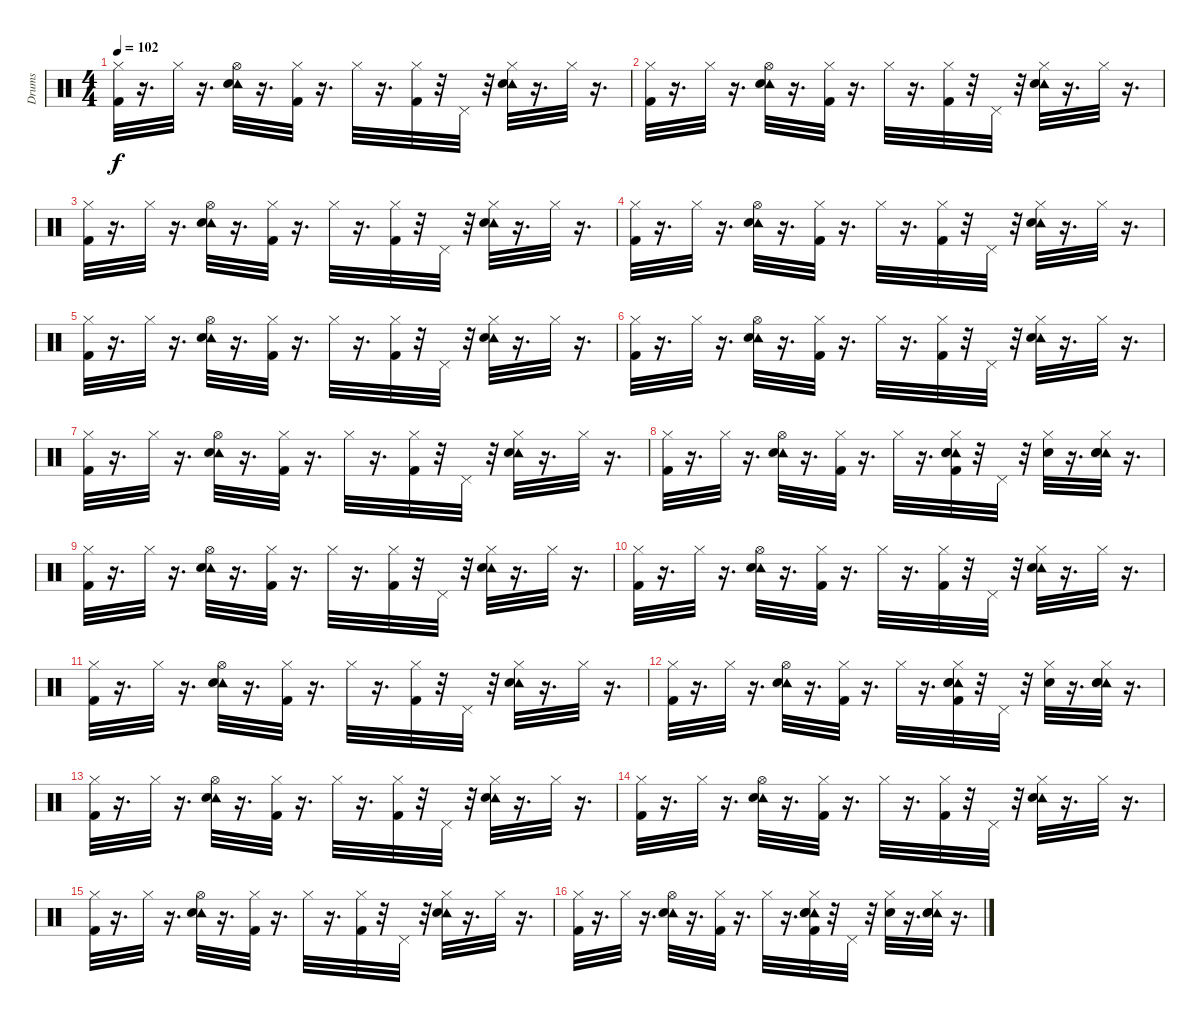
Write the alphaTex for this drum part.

\track ("Drums" "Drums") {instrument percussion}
\staff {score}
\articulation defaults
\ts (4 4)
\tempo 102
\clef neutral
\ks c
("Hi-Hat (closed)" "Kick (hit) 2").32{dy f} r.16{d} "Hi-Hat (closed)".32 r.16{d} ("Tambourine (hit)" "Hi-Hat (open)" "Electric Snare (hit)").32 r.16{d} ("Hi-Hat (closed)" "Kick (hit) 2").32 r.16{d} "Hi-Hat (closed)".32 r.16{d} ("Hi-Hat (closed)" "Kick (hit) 2").32 r.32 "Pedal Hi-Hat (hit)".32 r.32 ("Tambourine (hit)" "Hi-Hat (closed)" "Electric Snare (hit)").32 r.16{d} "Hi-Hat (closed)".32 r.16{d} |
("Hi-Hat (closed)" "Kick (hit) 2").32 r.16{d} "Hi-Hat (closed)".32 r.16{d} ("Tambourine (hit)" "Hi-Hat (open)" "Electric Snare (hit)").32 r.16{d} ("Hi-Hat (closed)" "Kick (hit) 2").32 r.16{d} "Hi-Hat (closed)".32 r.16{d} ("Hi-Hat (closed)" "Kick (hit) 2").32 r.32 "Pedal Hi-Hat (hit)".32 r.32 ("Tambourine (hit)" "Hi-Hat (closed)" "Electric Snare (hit)").32 r.16{d} "Hi-Hat (closed)".32 r.16{d} |
("Hi-Hat (closed)" "Kick (hit) 2").32 r.16{d} "Hi-Hat (closed)".32 r.16{d} ("Tambourine (hit)" "Hi-Hat (open)" "Electric Snare (hit)").32 r.16{d} ("Hi-Hat (closed)" "Kick (hit) 2").32 r.16{d} "Hi-Hat (closed)".32 r.16{d} ("Hi-Hat (closed)" "Kick (hit) 2").32 r.32 "Pedal Hi-Hat (hit)".32 r.32 ("Tambourine (hit)" "Hi-Hat (closed)" "Electric Snare (hit)").32 r.16{d} "Hi-Hat (closed)".32 r.16{d} |
("Hi-Hat (closed)" "Kick (hit) 2").32 r.16{d} "Hi-Hat (closed)".32 r.16{d} ("Tambourine (hit)" "Hi-Hat (open)" "Electric Snare (hit)").32 r.16{d} ("Hi-Hat (closed)" "Kick (hit) 2").32 r.16{d} "Hi-Hat (closed)".32 r.16{d} ("Hi-Hat (closed)" "Kick (hit) 2").32 r.32 "Pedal Hi-Hat (hit)".32 r.32 ("Tambourine (hit)" "Hi-Hat (closed)" "Electric Snare (hit)").32 r.16{d} "Hi-Hat (closed)".32 r.16{d} |
("Hi-Hat (closed)" "Kick (hit) 2").32 r.16{d} "Hi-Hat (closed)".32 r.16{d} ("Tambourine (hit)" "Hi-Hat (open)" "Electric Snare (hit)").32 r.16{d} ("Hi-Hat (closed)" "Kick (hit) 2").32 r.16{d} "Hi-Hat (closed)".32 r.16{d} ("Hi-Hat (closed)" "Kick (hit) 2").32 r.32 "Pedal Hi-Hat (hit)".32 r.32 ("Tambourine (hit)" "Hi-Hat (closed)" "Electric Snare (hit)").32 r.16{d} "Hi-Hat (closed)".32 r.16{d} |
("Hi-Hat (closed)" "Kick (hit) 2").32 r.16{d} "Hi-Hat (closed)".32 r.16{d} ("Tambourine (hit)" "Hi-Hat (open)" "Electric Snare (hit)").32 r.16{d} ("Hi-Hat (closed)" "Kick (hit) 2").32 r.16{d} "Hi-Hat (closed)".32 r.16{d} ("Hi-Hat (closed)" "Kick (hit) 2").32 r.32 "Pedal Hi-Hat (hit)".32 r.32 ("Tambourine (hit)" "Hi-Hat (closed)" "Electric Snare (hit)").32 r.16{d} "Hi-Hat (closed)".32 r.16{d} |
("Hi-Hat (closed)" "Kick (hit) 2").32 r.16{d} "Hi-Hat (closed)".32 r.16{d} ("Tambourine (hit)" "Hi-Hat (open)" "Electric Snare (hit)").32 r.16{d} ("Hi-Hat (closed)" "Kick (hit) 2").32 r.16{d} "Hi-Hat (closed)".32 r.16{d} ("Hi-Hat (closed)" "Kick (hit) 2").32 r.32 "Pedal Hi-Hat (hit)".32 r.32 ("Tambourine (hit)" "Hi-Hat (closed)" "Electric Snare (hit)").32 r.16{d} "Hi-Hat (closed)".32 r.16{d} |
("Hi-Hat (closed)" "Kick (hit) 2").32 r.16{d} "Hi-Hat (closed)".32 r.16{d} ("Tambourine (hit)" "Hi-Hat (open)" "Electric Snare (hit)").32 r.16{d} ("Hi-Hat (closed)" "Kick (hit) 2").32 r.16{d} "Hi-Hat (closed)".32 r.16{d} ("Tambourine (hit)" "Electric Snare (hit)" "Snare (hit) 2" "Hi-Hat (closed)" "Kick (hit) 2").32 r.32 "Pedal Hi-Hat (hit)".32 r.32 ("Hi-Hat (closed)" "Electric Snare (hit)").32 r.16{d} ("Tambourine (hit)" "Electric Snare (hit)" "Snare (hit) 2" "Hi-Hat (closed)").32 r.16{d} |
("Hi-Hat (closed)" "Kick (hit) 2").32 r.16{d} "Hi-Hat (closed)".32 r.16{d} ("Tambourine (hit)" "Hi-Hat (open)" "Electric Snare (hit)").32 r.16{d} ("Hi-Hat (closed)" "Kick (hit) 2").32 r.16{d} "Hi-Hat (closed)".32 r.16{d} ("Hi-Hat (closed)" "Kick (hit) 2").32 r.32 "Pedal Hi-Hat (hit)".32 r.32 ("Tambourine (hit)" "Hi-Hat (closed)" "Electric Snare (hit)").32 r.16{d} "Hi-Hat (closed)".32 r.16{d} |
("Hi-Hat (closed)" "Kick (hit) 2").32 r.16{d} "Hi-Hat (closed)".32 r.16{d} ("Tambourine (hit)" "Hi-Hat (open)" "Electric Snare (hit)").32 r.16{d} ("Hi-Hat (closed)" "Kick (hit) 2").32 r.16{d} "Hi-Hat (closed)".32 r.16{d} ("Hi-Hat (closed)" "Kick (hit) 2").32 r.32 "Pedal Hi-Hat (hit)".32 r.32 ("Tambourine (hit)" "Hi-Hat (closed)" "Electric Snare (hit)").32 r.16{d} "Hi-Hat (closed)".32 r.16{d} |
("Hi-Hat (closed)" "Kick (hit) 2").32 r.16{d} "Hi-Hat (closed)".32 r.16{d} ("Tambourine (hit)" "Hi-Hat (open)" "Electric Snare (hit)").32 r.16{d} ("Hi-Hat (closed)" "Kick (hit) 2").32 r.16{d} "Hi-Hat (closed)".32 r.16{d} ("Hi-Hat (closed)" "Kick (hit) 2").32 r.32 "Pedal Hi-Hat (hit)".32 r.32 ("Tambourine (hit)" "Hi-Hat (closed)" "Electric Snare (hit)").32 r.16{d} "Hi-Hat (closed)".32 r.16{d} |
("Hi-Hat (closed)" "Kick (hit) 2").32 r.16{d} "Hi-Hat (closed)".32 r.16{d} ("Tambourine (hit)" "Hi-Hat (open)" "Electric Snare (hit)").32 r.16{d} ("Hi-Hat (closed)" "Kick (hit) 2").32 r.16{d} "Hi-Hat (closed)".32 r.16{d} ("Tambourine (hit)" "Electric Snare (hit)" "Snare (hit) 2" "Hi-Hat (closed)" "Kick (hit) 2").32 r.32 "Pedal Hi-Hat (hit)".32 r.32 ("Hi-Hat (closed)" "Electric Snare (hit)").32 r.16{d} ("Tambourine (hit)" "Electric Snare (hit)" "Snare (hit) 2" "Hi-Hat (closed)").32 r.16{d} |
("Hi-Hat (closed)" "Kick (hit) 2").32 r.16{d} "Hi-Hat (closed)".32 r.16{d} ("Tambourine (hit)" "Hi-Hat (open)" "Electric Snare (hit)").32 r.16{d} ("Hi-Hat (closed)" "Kick (hit) 2").32 r.16{d} "Hi-Hat (closed)".32 r.16{d} ("Hi-Hat (closed)" "Kick (hit) 2").32 r.32 "Pedal Hi-Hat (hit)".32 r.32 ("Tambourine (hit)" "Hi-Hat (closed)" "Electric Snare (hit)").32 r.16{d} "Hi-Hat (closed)".32 r.16{d} |
("Hi-Hat (closed)" "Kick (hit) 2").32 r.16{d} "Hi-Hat (closed)".32 r.16{d} ("Tambourine (hit)" "Hi-Hat (open)" "Electric Snare (hit)").32 r.16{d} ("Hi-Hat (closed)" "Kick (hit) 2").32 r.16{d} "Hi-Hat (closed)".32 r.16{d} ("Hi-Hat (closed)" "Kick (hit) 2").32 r.32 "Pedal Hi-Hat (hit)".32 r.32 ("Tambourine (hit)" "Hi-Hat (closed)" "Electric Snare (hit)").32 r.16{d} "Hi-Hat (closed)".32 r.16{d} |
("Hi-Hat (closed)" "Kick (hit) 2").32 r.16{d} "Hi-Hat (closed)".32 r.16{d} ("Tambourine (hit)" "Hi-Hat (open)" "Electric Snare (hit)").32 r.16{d} ("Hi-Hat (closed)" "Kick (hit) 2").32 r.16{d} "Hi-Hat (closed)".32 r.16{d} ("Hi-Hat (closed)" "Kick (hit) 2").32 r.32 "Pedal Hi-Hat (hit)".32 r.32 ("Tambourine (hit)" "Hi-Hat (closed)" "Electric Snare (hit)").32 r.16{d} "Hi-Hat (closed)".32 r.16{d} |
("Hi-Hat (closed)" "Kick (hit) 2").32 r.16{d} "Hi-Hat (closed)".32 r.16{d} ("Tambourine (hit)" "Hi-Hat (open)" "Electric Snare (hit)").32 r.16{d} ("Hi-Hat (closed)" "Kick (hit) 2").32 r.16{d} "Hi-Hat (closed)".32 r.16{d} ("Tambourine (hit)" "Electric Snare (hit)" "Snare (hit) 2" "Hi-Hat (closed)" "Kick (hit) 2").32 r.32 "Pedal Hi-Hat (hit)".32 r.32 ("Hi-Hat (closed)" "Electric Snare (hit)").32 r.16{d} ("Tambourine (hit)" "Electric Snare (hit)" "Snare (hit) 2" "Hi-Hat (closed)").32 r.16{d}
